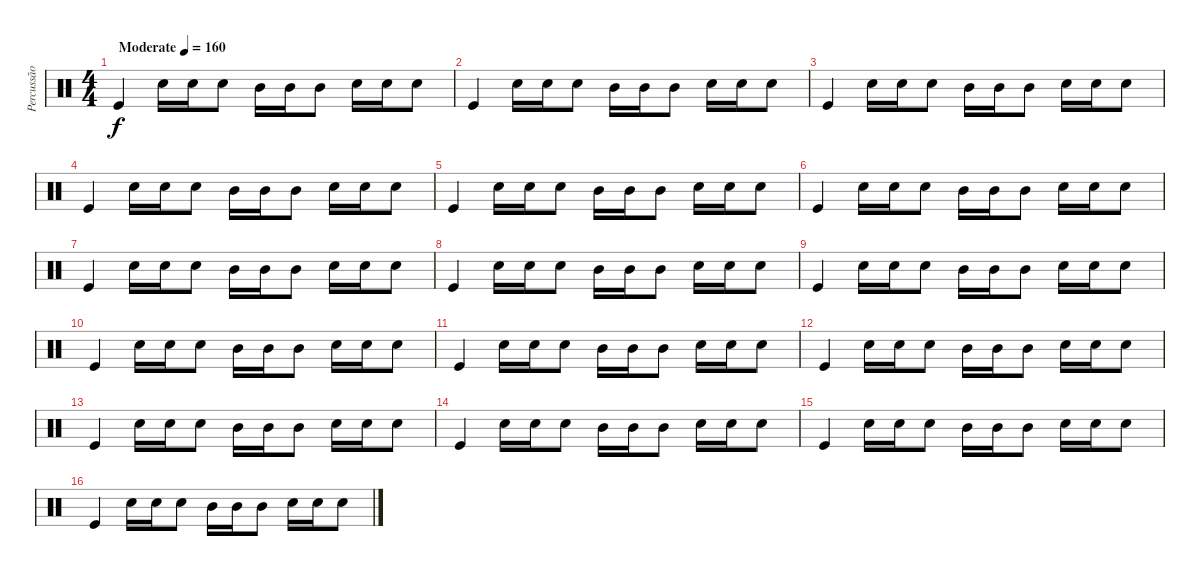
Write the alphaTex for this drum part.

\track ("Percussão" "Percussão") {instrument percussion}
\staff {score}
\articulation defaults
\ts (4 4)
\tempo (160 "Moderate")
\clef neutral
\ks c "Kick (hit)".4{dy f} "Snare (hit) 2".16 "Snare (hit) 2".16 "Snare (hit) 2".8 "Mid Tom (hit)".16 "Mid Tom (hit)".16 "Mid Tom (hit)".8 "Snare (hit) 2".16 "Snare (hit) 2".16 "Snare (hit) 2".8
|
"Kick (hit)".4 "Snare (hit) 2".16 "Snare (hit) 2".16 "Snare (hit) 2".8 "Mid Tom (hit)".16 "Mid Tom (hit)".16 "Mid Tom (hit)".8 "Snare (hit) 2".16 "Snare (hit) 2".16 "Snare (hit) 2".8 |
"Kick (hit)".4 "Snare (hit) 2".16 "Snare (hit) 2".16 "Snare (hit) 2".8 "Mid Tom (hit)".16 "Mid Tom (hit)".16 "Mid Tom (hit)".8 "Snare (hit) 2".16 "Snare (hit) 2".16 "Snare (hit) 2".8 |
"Kick (hit)".4 "Snare (hit) 2".16 "Snare (hit) 2".16 "Snare (hit) 2".8 "Mid Tom (hit)".16 "Mid Tom (hit)".16 "Mid Tom (hit)".8 "Snare (hit) 2".16 "Snare (hit) 2".16 "Snare (hit) 2".8 |
"Kick (hit)".4 "Snare (hit) 2".16 "Snare (hit) 2".16 "Snare (hit) 2".8 "Mid Tom (hit)".16 "Mid Tom (hit)".16 "Mid Tom (hit)".8 "Snare (hit) 2".16 "Snare (hit) 2".16 "Snare (hit) 2".8 |
"Kick (hit)".4 "Snare (hit) 2".16 "Snare (hit) 2".16 "Snare (hit) 2".8 "Mid Tom (hit)".16 "Mid Tom (hit)".16 "Mid Tom (hit)".8 "Snare (hit) 2".16 "Snare (hit) 2".16 "Snare (hit) 2".8 |
"Kick (hit)".4 "Snare (hit) 2".16 "Snare (hit) 2".16 "Snare (hit) 2".8 "Mid Tom (hit)".16 "Mid Tom (hit)".16 "Mid Tom (hit)".8 "Snare (hit) 2".16 "Snare (hit) 2".16 "Snare (hit) 2".8 |
"Kick (hit)".4 "Snare (hit) 2".16 "Snare (hit) 2".16 "Snare (hit) 2".8 "Mid Tom (hit)".16 "Mid Tom (hit)".16 "Mid Tom (hit)".8 "Snare (hit) 2".16 "Snare (hit) 2".16 "Snare (hit) 2".8 |
"Kick (hit)".4 "Snare (hit) 2".16 "Snare (hit) 2".16 "Snare (hit) 2".8 "Mid Tom (hit)".16 "Mid Tom (hit)".16 "Mid Tom (hit)".8 "Snare (hit) 2".16 "Snare (hit) 2".16 "Snare (hit) 2".8 |
"Kick (hit)".4 "Snare (hit) 2".16 "Snare (hit) 2".16 "Snare (hit) 2".8 "Mid Tom (hit)".16 "Mid Tom (hit)".16 "Mid Tom (hit)".8 "Snare (hit) 2".16 "Snare (hit) 2".16 "Snare (hit) 2".8 |
"Kick (hit)".4 "Snare (hit) 2".16 "Snare (hit) 2".16 "Snare (hit) 2".8 "Mid Tom (hit)".16 "Mid Tom (hit)".16 "Mid Tom (hit)".8 "Snare (hit) 2".16 "Snare (hit) 2".16 "Snare (hit) 2".8 |
"Kick (hit)".4 "Snare (hit) 2".16 "Snare (hit) 2".16 "Snare (hit) 2".8 "Mid Tom (hit)".16 "Mid Tom (hit)".16 "Mid Tom (hit)".8 "Snare (hit) 2".16 "Snare (hit) 2".16 "Snare (hit) 2".8 |
"Kick (hit)".4 "Snare (hit) 2".16 "Snare (hit) 2".16 "Snare (hit) 2".8 "Mid Tom (hit)".16 "Mid Tom (hit)".16 "Mid Tom (hit)".8 "Snare (hit) 2".16 "Snare (hit) 2".16 "Snare (hit) 2".8 |
"Kick (hit)".4 "Snare (hit) 2".16 "Snare (hit) 2".16 "Snare (hit) 2".8 "Mid Tom (hit)".16 "Mid Tom (hit)".16 "Mid Tom (hit)".8 "Snare (hit) 2".16 "Snare (hit) 2".16 "Snare (hit) 2".8 |
"Kick (hit)".4 "Snare (hit) 2".16 "Snare (hit) 2".16 "Snare (hit) 2".8 "Mid Tom (hit)".16 "Mid Tom (hit)".16 "Mid Tom (hit)".8 "Snare (hit) 2".16 "Snare (hit) 2".16 "Snare (hit) 2".8 |
"Kick (hit)".4 "Snare (hit) 2".16 "Snare (hit) 2".16 "Snare (hit) 2".8 "Mid Tom (hit)".16 "Mid Tom (hit)".16 "Mid Tom (hit)".8 "Snare (hit) 2".16 "Snare (hit) 2".16 "Snare (hit) 2".8
